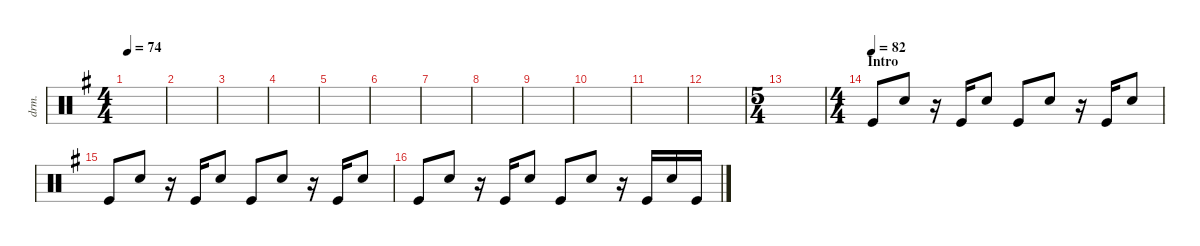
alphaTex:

\defaultSystemsLayout 2
\hideDynamics
\bracketExtendMode nobrackets
\otherSystemsTrackNameOrientation horizontal
\track ("Drums" "drm.") {instrument percussion}
\staff {score}
\articulation defaults
\ts (4 4)
\beaming (8 2 2 2 2)
\tempo 74
\clef neutral
\ks g
|
|
|
|
|
|
|
|
|
|
|
|
\ts (5 4)
\beaming (8 5 5)
|
\ts (4 4)
\beaming (8 2 2 2 2)
\section ("" "Intro")
\tempo (82)
"Kick (hit)".8 "Snare (hit) 2".8 r.16 "Kick (hit)".16 "Snare (hit) 2".8 "Kick (hit)".8 "Snare (hit) 2".8 r.16 "Kick (hit)".16 "Snare (hit) 2".8 |
"Kick (hit)".8 "Snare (hit) 2".8 r.16 "Kick (hit)".16 "Snare (hit) 2".8 "Kick (hit)".8 "Snare (hit) 2".8 r.16 "Kick (hit)".16 "Snare (hit) 2".8 |
"Kick (hit)".8 "Snare (hit) 2".8 r.16 "Kick (hit)".16 "Snare (hit) 2".8 "Kick (hit)".8 "Snare (hit) 2".8 r.16 "Kick (hit)".16 "Snare (hit) 2".16 "Kick (hit)".16
